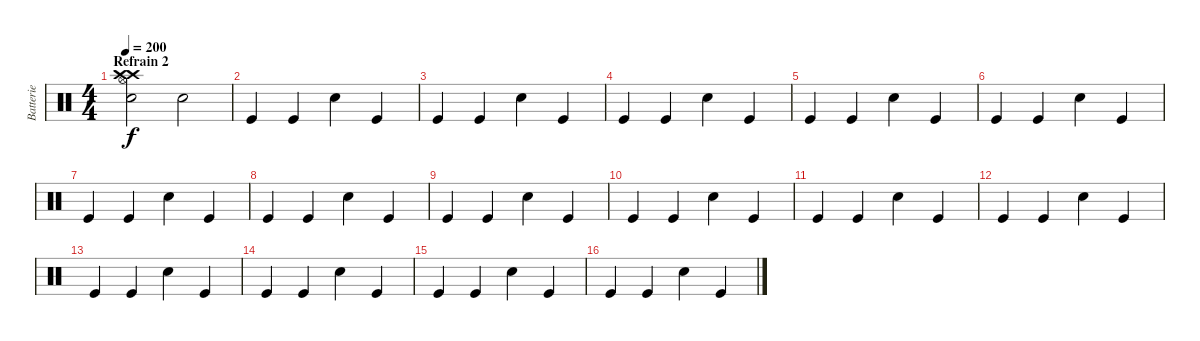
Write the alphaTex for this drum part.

\track ("Batterie" "Batterie") {instrument percussion}
\staff {score}
\articulation defaults
\ts (4 4)
\section ("" "Refrain 2")
\tempo 200
\clef neutral
\ks c
("Electric Snare (hit)" "Crash high (hit)" "Crash high (hit)" "Hi-Hat (open)").2{dy f} "Electric Snare (hit)".2 |
"Kick (hit)".4 "Kick (hit)".4 "Electric Snare (hit)".4 "Kick (hit)".4 |
"Kick (hit)".4 "Kick (hit)".4 "Electric Snare (hit)".4 "Kick (hit)".4 |
"Kick (hit)".4 "Kick (hit)".4 "Electric Snare (hit)".4 "Kick (hit)".4 |
"Kick (hit)".4 "Kick (hit)".4 "Electric Snare (hit)".4 "Kick (hit)".4 |
"Kick (hit)".4 "Kick (hit)".4 "Electric Snare (hit)".4 "Kick (hit)".4 |
"Kick (hit)".4 "Kick (hit)".4 "Electric Snare (hit)".4 "Kick (hit)".4 |
"Kick (hit)".4 "Kick (hit)".4 "Electric Snare (hit)".4 "Kick (hit)".4 |
"Kick (hit)".4 "Kick (hit)".4 "Electric Snare (hit)".4 "Kick (hit)".4 |
"Kick (hit)".4 "Kick (hit)".4 "Electric Snare (hit)".4 "Kick (hit)".4 |
"Kick (hit)".4 "Kick (hit)".4 "Electric Snare (hit)".4 "Kick (hit)".4 |
"Kick (hit)".4 "Kick (hit)".4 "Electric Snare (hit)".4 "Kick (hit)".4 |
"Kick (hit)".4 "Kick (hit)".4 "Electric Snare (hit)".4 "Kick (hit)".4 |
"Kick (hit)".4 "Kick (hit)".4 "Electric Snare (hit)".4 "Kick (hit)".4 |
"Kick (hit)".4 "Kick (hit)".4 "Electric Snare (hit)".4 "Kick (hit)".4 |
"Kick (hit)".4 "Kick (hit)".4 "Electric Snare (hit)".4 "Kick (hit)".4
